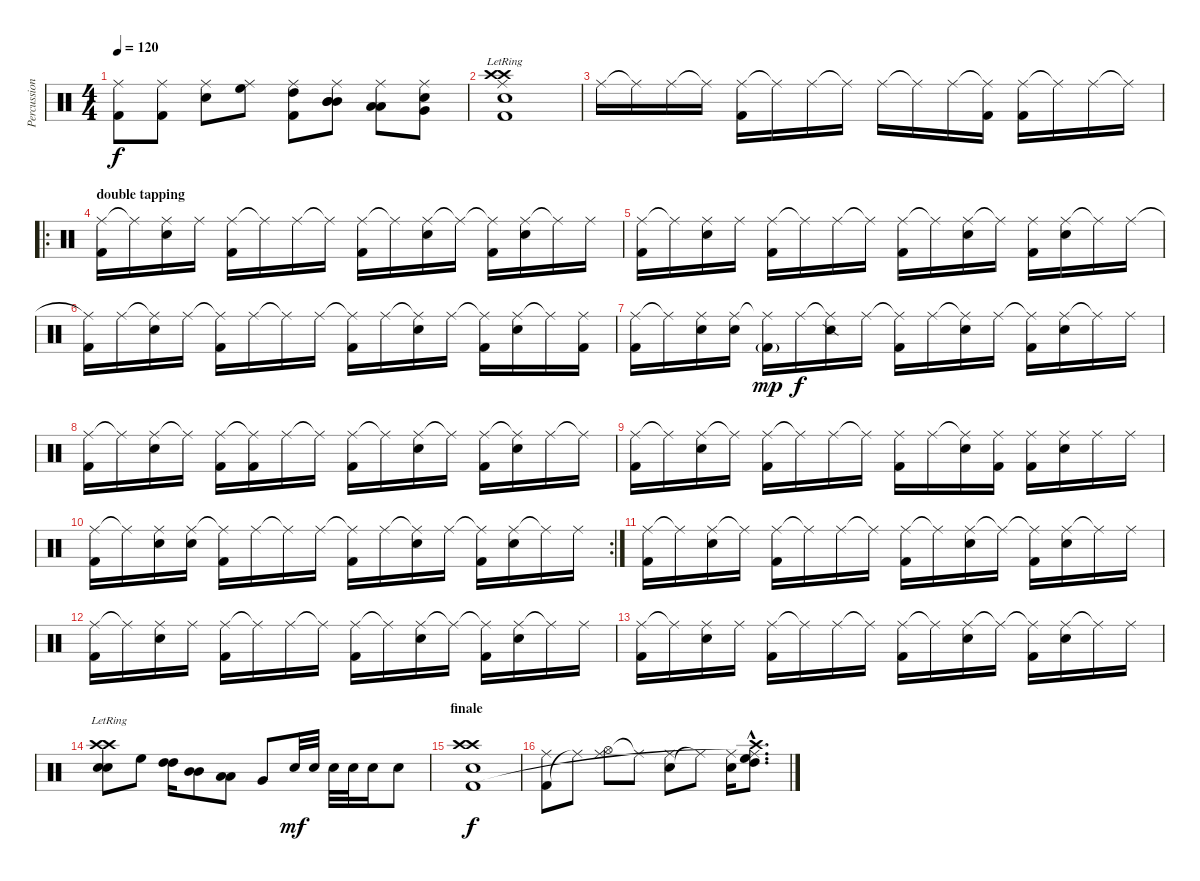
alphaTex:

\track ("Percussioni" "Percussion") {instrument percussion}
\staff {score}
\articulation defaults
\ts (4 4)
\tempo 120
\clef neutral
\ks c
("Ride (middle)" "Kick (hit) 2").8{dy f} ("Ride (middle)" "Kick (hit) 2").8 ("Ride (middle)" "Electric Snare (hit)").8 ("High Floor Tom (hit)" "Ride (middle)").8 ("High Tom (hit)" "Ride (middle)" "Kick (hit) 2").8 ("Mid Tom (hit)" "Mid Tom (hit)" "Ride (middle)" "Mid Tom (hit)").8 ("Low Tom (hit)" "Ride (middle)" "Low Tom (hit)").8 ("Very Low Tom (hit)" "Ride (middle)" "Electric Snare (hit)").8 |
("Crash high (hit)"{lr} "Crash high (hit)"{lr} "Electric Snare (hit)" "Ride (middle)" "Kick (hit) 2").1 |
"Ride (middle)".16 "Ride (middle)"{t}.16 "Ride (middle)".16 "Ride (middle)"{t}.16 ("Ride (middle)" "Kick (hit) 2").16 "Ride (middle)"{t}.16 "Ride (middle)".16 "Ride (middle)"{t}.16 "Ride (middle)".16 "Ride (middle)"{t}.16 "Ride (middle)".16 ("Ride (middle)"{t} "Kick (hit) 2").16 ("Ride (middle)" "Kick (hit) 2").16 "Ride (middle)"{t}.16 "Ride (middle)".16 "Ride (middle)"{t}.16 |
\ro
\section ("" "double tapping")
("Ride (middle)" "Kick (hit) 2").16 "Ride (middle)"{t}.16 ("Ride (middle)" "Electric Snare (hit)").16 "Ride (middle)".16 ("Ride (middle)" "Kick (hit) 2").16 "Ride (middle)"{t}.16 "Ride (middle)".16 "Ride (middle)"{t}.16 ("Ride (middle)" "Kick (hit) 2").16 "Ride (middle)"{t}.16 ("Ride (middle)" "Electric Snare (hit)").16 "Ride (middle)"{t}.16 ("Ride (middle)"{t} "Kick (hit) 2").16 ("Ride (middle)" "Electric Snare (hit)").16 "Ride (middle)"{t}.16 "Ride (middle)".16 |
("Ride (middle)" "Kick (hit) 2").16 "Ride (middle)"{t}.16 ("Ride (middle)" "Electric Snare (hit)").16 "Ride (middle)".16 ("Ride (middle)" "Kick (hit) 2").16 "Ride (middle)"{t}.16 "Ride (middle)".16 "Ride (middle)"{t}.16 ("Ride (middle)" "Kick (hit) 2").16 "Ride (middle)"{t}.16 ("Ride (middle)" "Electric Snare (hit)").16 "Ride (middle)"{t}.16 ("Ride (middle)" "Kick (hit) 2").16 ("Ride (middle)" "Electric Snare (hit)").16 "Ride (middle)"{t}.16 "Ride (middle)".16 |
("Ride (middle)"{t} "Kick (hit) 2").16 "Ride (middle)".16 ("Ride (middle)"{t} "Electric Snare (hit)").16 "Ride (middle)".16 ("Ride (middle)"{t} "Kick (hit) 2").16 "Ride (middle)".16 "Ride (middle)"{t}.16 "Ride (middle)".16 ("Ride (middle)"{t} "Kick (hit) 2").16 "Ride (middle)".16 ("Ride (middle)"{t} "Electric Snare (hit)").16 "Ride (middle)".16 ("Ride (middle)"{t} "Kick (hit) 2").16 ("Ride (middle)" "Electric Snare (hit)").16 "Ride (middle)"{t}.16 ("Ride (middle)" "Kick (hit) 2").16 |
("Ride (middle)" "Kick (hit) 2").16 "Ride (middle)"{t}.16 ("Ride (middle)" "Electric Snare (hit)").16 ("Ride (middle)" "Electric Snare (hit)").16 ("Ride (middle)"{t} "Kick (hit) 2"{g}).16{dy mp} "Ride (middle)".16{dy f} ("Ride (middle)"{t} "Snare (side stick) 2").16 "Ride (middle)".16 ("Ride (middle)"{t} "Kick (hit) 2").16 "Ride (middle)".16 ("Ride (middle)"{t} "Electric Snare (hit)").16 "Ride (middle)".16 ("Ride (middle)"{t} "Kick (hit) 2").16 ("Ride (middle)" "Electric Snare (hit)").16 "Ride (middle)"{t}.16 "Ride (middle)".16 |
("Ride (middle)" "Kick (hit) 2").16 "Ride (middle)"{t}.16 ("Ride (middle)" "Electric Snare (hit)").16 "Ride (middle)"{t}.16 ("Ride (middle)" "Kick (hit) 2").16 ("Ride (middle)"{t} "Kick (hit) 2").16 "Ride (middle)".16 "Ride (middle)"{t}.16 ("Ride (middle)" "Kick (hit) 2").16 "Ride (middle)"{t}.16 ("Ride (middle)" "Electric Snare (hit)").16 "Ride (middle)"{t}.16 ("Ride (middle)" "Kick (hit) 2").16 ("Ride (middle)"{t} "Electric Snare (hit)").16 "Ride (middle)".16 "Ride (middle)"{t}.16 |
("Ride (middle)" "Kick (hit) 2").16 "Ride (middle)"{t}.16 ("Ride (middle)" "Electric Snare (hit)").16 "Ride (middle)"{t}.16 ("Ride (middle)" "Kick (hit) 2").16 "Ride (middle)"{t}.16 "Ride (middle)".16 "Ride (middle)"{t}.16 ("Ride (middle)" "Kick (hit) 2").16 "Ride (middle)".16 ("Ride (middle)"{t} "Electric Snare (hit)").16 ("Ride (middle)" "Kick (hit) 2").16 ("Ride (middle)" "Kick (hit) 2").16 ("Ride (middle)" "Electric Snare (hit)").16 "Ride (middle)".16 "Ride (middle)".16 |
\rc 2
("Ride (middle)" "Kick (hit) 2").16 "Ride (middle)"{t}.16 ("Ride (middle)" "Electric Snare (hit)").16 ("Ride (middle)" "Electric Snare (hit)").16 ("Ride (middle)"{t} "Kick (hit) 2").16 "Ride (middle)".16 "Ride (middle)"{t}.16 "Ride (middle)".16 ("Ride (middle)"{t} "Kick (hit) 2").16 "Ride (middle)".16 ("Ride (middle)"{t} "Electric Snare (hit)").16 "Ride (middle)".16 ("Ride (middle)"{t} "Kick (hit) 2").16 ("Ride (middle)" "Electric Snare (hit)").16 "Ride (middle)"{t}.16 "Ride (middle)".16 |
("Ride (middle)" "Kick (hit) 2").16 "Ride (middle)"{t}.16 ("Ride (middle)" "Electric Snare (hit)").16 "Ride (middle)"{t}.16 ("Ride (middle)" "Kick (hit) 2").16 "Ride (middle)"{t}.16 "Ride (middle)".16 "Ride (middle)"{t}.16 ("Ride (middle)" "Kick (hit) 2").16 "Ride (middle)"{t}.16 ("Ride (middle)" "Electric Snare (hit)").16 "Ride (middle)"{t}.16 ("Ride (middle)"{t} "Kick (hit) 2").16 ("Ride (middle)" "Electric Snare (hit)").16 "Ride (middle)"{t}.16 "Ride (middle)".16 |
("Ride (middle)" "Kick (hit) 2").16 "Ride (middle)"{t}.16 ("Ride (middle)" "Electric Snare (hit)").16 "Ride (middle)".16 ("Ride (middle)" "Kick (hit) 2").16 "Ride (middle)"{t}.16 "Ride (middle)".16 "Ride (middle)"{t}.16 ("Ride (middle)" "Kick (hit) 2").16 "Ride (middle)"{t}.16 ("Ride (middle)" "Electric Snare (hit)").16 "Ride (middle)"{t}.16 ("Ride (middle)"{t} "Kick (hit) 2").16 ("Ride (middle)" "Electric Snare (hit)").16 "Ride (middle)"{t}.16 "Ride (middle)".16 |
("Ride (middle)" "Kick (hit) 2").16 "Ride (middle)"{t}.16 ("Ride (middle)" "Electric Snare (hit)").16 "Ride (middle)".16 ("Ride (middle)" "Kick (hit) 2").16 "Ride (middle)"{t}.16 "Ride (middle)".16 "Ride (middle)"{t}.16 ("Ride (middle)" "Kick (hit) 2").16 "Ride (middle)"{t}.16 ("Ride (middle)" "Electric Snare (hit)").16 "Ride (middle)"{t}.16 ("Ride (middle)"{t} "Kick (hit) 2").16 ("Ride (middle)" "Electric Snare (hit)").16 "Ride (middle)"{t}.16 "Ride (middle)".16 |
("Crash high (hit)"{lr} "Crash high (hit)"{lr} "Electric Snare (hit)" "Electric Snare (hit)").8 "High Floor Tom (hit)".8 ("High Tom (hit)" "High Tom (hit)").16 ("Mid Tom (hit)" "Mid Tom (hit)").8 ("Low Tom (hit)" "Low Tom (hit)").8 "Very Low Tom (hit)".8 "Electric Snare (hit)".32{dy mf} "Electric Snare (hit)".32 "Electric Snare (hit)".32 "Electric Snare (hit)".32 "Electric Snare (hit)".16 "Electric Snare (hit)".8 |
\section ("" "finale")
("Crash high (hit)" "Crash high (hit)" "Electric Snare (hit)" "Kick (hit) 2").1{dy f} |
("Kick (hit) 2" "Ride (middle)").8 "Ride (middle)"{t}.8 ("Hi-Hat (open)" "Ride (middle)").8 "Ride (middle)"{t}.8 ("Electric Snare (hit)" "Ride (middle)").8 "Ride (middle)"{t}.8 ("Electric Snare (hit)" "Ride (middle)").16 ("Crash high (hit)"{hac} "High Tom (hit)"{hac} "High Floor Tom (hit)"{hac} "Ride (middle)"{hac t}).8{d}
